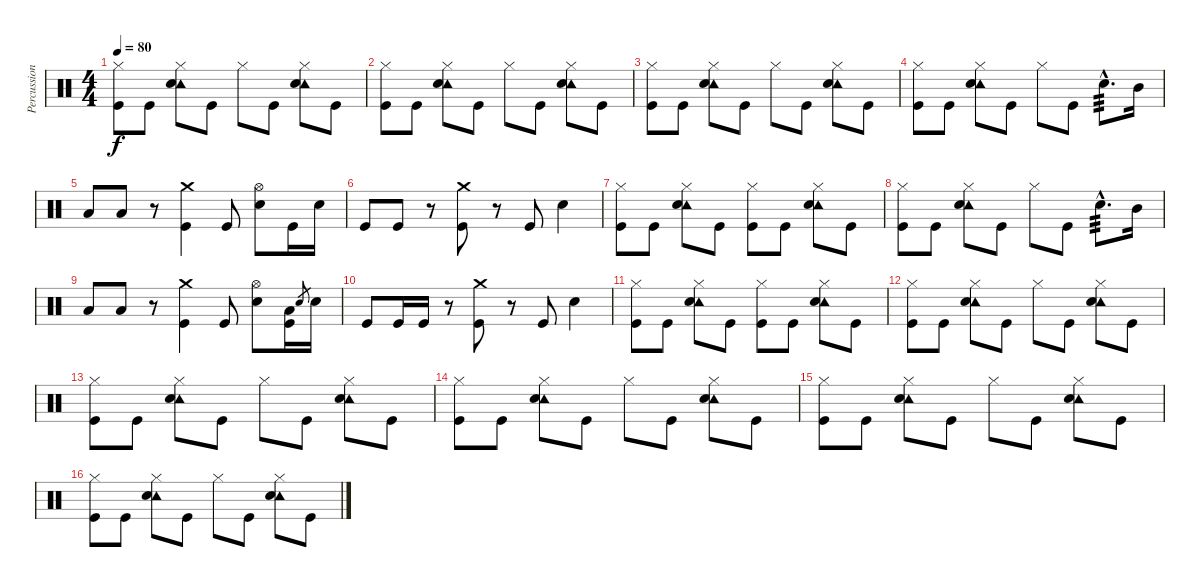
\track ("Percussion" "Percussion") {instrument percussion}
\staff {score}
\articulation defaults
\ts (4 4)
\tempo 80
\clef neutral
\ks c
("Hi-Hat (closed)" "Kick (hit)").8{dy f} "Kick (hit)".8 ("Hi-Hat (closed)" "Tambourine (hit)" "Electric Snare (hit)").8 "Kick (hit)".8 "Hi-Hat (closed)".8 "Kick (hit)".8 ("Hi-Hat (closed)" "Tambourine (hit)" "Electric Snare (hit)").8 "Kick (hit)".8 |
("Hi-Hat (closed)" "Kick (hit)").8 "Kick (hit)".8 ("Hi-Hat (closed)" "Tambourine (hit)" "Electric Snare (hit)").8 "Kick (hit)".8 "Hi-Hat (closed)".8 "Kick (hit)".8 ("Hi-Hat (closed)" "Tambourine (hit)" "Electric Snare (hit)").8 "Kick (hit)".8 |
("Hi-Hat (closed)" "Kick (hit)").8 "Kick (hit)".8 ("Hi-Hat (closed)" "Tambourine (hit)" "Electric Snare (hit)").8 "Kick (hit)".8 "Hi-Hat (closed)".8 "Kick (hit)".8 ("Hi-Hat (closed)" "Tambourine (hit)" "Electric Snare (hit)").8 "Kick (hit)".8 |
("Hi-Hat (closed)" "Kick (hit)").8 "Kick (hit)".8 ("Hi-Hat (closed)" "Tambourine (hit)" "Electric Snare (hit)").8 "Kick (hit)".8 "Hi-Hat (closed)".8 "Kick (hit)".8 "Electric Snare (hit)"{hac}.8{d tp 3} "Mid Tom (hit)".16 |
"Low Floor Tom (hit)".8 "Low Floor Tom (hit)".8 r.8 ("Crash medium (hit)" "Kick (hit)").4 "Kick (hit)".8 ("Hi-Hat (open)" "Electric Snare (hit)").8 "Kick (hit)".16 "Electric Snare (hit)".16 |
"Kick (hit)".8 "Kick (hit)".8 r.8 ("Crash medium (hit)" "Kick (hit)").8 r.8 "Kick (hit)".8 "Electric Snare (hit)".4 |
("Hi-Hat (closed)" "Kick (hit)").8 "Kick (hit)".8 ("Hi-Hat (closed)" "Tambourine (hit)" "Electric Snare (hit)").8 "Kick (hit)".8 ("Hi-Hat (closed)" "Kick (hit)").8 "Kick (hit)".8 ("Hi-Hat (closed)" "Tambourine (hit)" "Electric Snare (hit)").8 "Kick (hit)".8 |
("Hi-Hat (closed)" "Kick (hit)").8 "Kick (hit)".8 ("Hi-Hat (closed)" "Tambourine (hit)" "Electric Snare (hit)").8 "Kick (hit)".8 "Hi-Hat (closed)".8 "Kick (hit)".8 "Electric Snare (hit)"{hac}.8{d tp 3} "Mid Tom (hit)".16 |
"Low Floor Tom (hit)".8 "Low Floor Tom (hit)".8 r.8 ("Crash medium (hit)" "Kick (hit)").4 "Kick (hit)".8 ("Hi-Hat (open)" "Electric Snare (hit)").8 ("Low Floor Tom (hit)" "Kick (hit)").16 "Electric Snare (hit)".8{gr} "Electric Snare (hit)".16 |
"Kick (hit)".8 "Kick (hit)".16 "Kick (hit)".16 r.8 ("Crash medium (hit)" "Kick (hit)").8 r.8 "Kick (hit)".8 "Electric Snare (hit)".4 |
("Hi-Hat (closed)" "Kick (hit)").8 "Kick (hit)".8 ("Hi-Hat (closed)" "Tambourine (hit)" "Electric Snare (hit)").8 "Kick (hit)".8 ("Hi-Hat (closed)" "Kick (hit)").8 "Kick (hit)".8 ("Hi-Hat (closed)" "Tambourine (hit)" "Electric Snare (hit)").8 "Kick (hit)".8 |
("Hi-Hat (closed)" "Kick (hit)").8 "Kick (hit)".8 ("Hi-Hat (closed)" "Tambourine (hit)" "Electric Snare (hit)").8 "Kick (hit)".8 "Hi-Hat (closed)".8 "Kick (hit)".8 ("Hi-Hat (closed)" "Tambourine (hit)" "Electric Snare (hit)").8 "Kick (hit)".8 |
("Hi-Hat (closed)" "Kick (hit)").8 "Kick (hit)".8 ("Hi-Hat (closed)" "Tambourine (hit)" "Electric Snare (hit)").8 "Kick (hit)".8 "Hi-Hat (closed)".8 "Kick (hit)".8 ("Hi-Hat (closed)" "Tambourine (hit)" "Electric Snare (hit)").8 "Kick (hit)".8 |
("Hi-Hat (closed)" "Kick (hit)").8 "Kick (hit)".8 ("Hi-Hat (closed)" "Tambourine (hit)" "Electric Snare (hit)").8 "Kick (hit)".8 "Hi-Hat (closed)".8 "Kick (hit)".8 ("Hi-Hat (closed)" "Tambourine (hit)" "Electric Snare (hit)").8 "Kick (hit)".8 |
("Hi-Hat (closed)" "Kick (hit)").8 "Kick (hit)".8 ("Hi-Hat (closed)" "Tambourine (hit)" "Electric Snare (hit)").8 "Kick (hit)".8 "Hi-Hat (closed)".8 "Kick (hit)".8 ("Hi-Hat (closed)" "Tambourine (hit)" "Electric Snare (hit)").8 "Kick (hit)".8 |
("Hi-Hat (closed)" "Kick (hit)").8 "Kick (hit)".8 ("Hi-Hat (closed)" "Tambourine (hit)" "Electric Snare (hit)").8 "Kick (hit)".8 "Hi-Hat (closed)".8 "Kick (hit)".8 ("Hi-Hat (closed)" "Tambourine (hit)" "Electric Snare (hit)").8 "Kick (hit)".8
